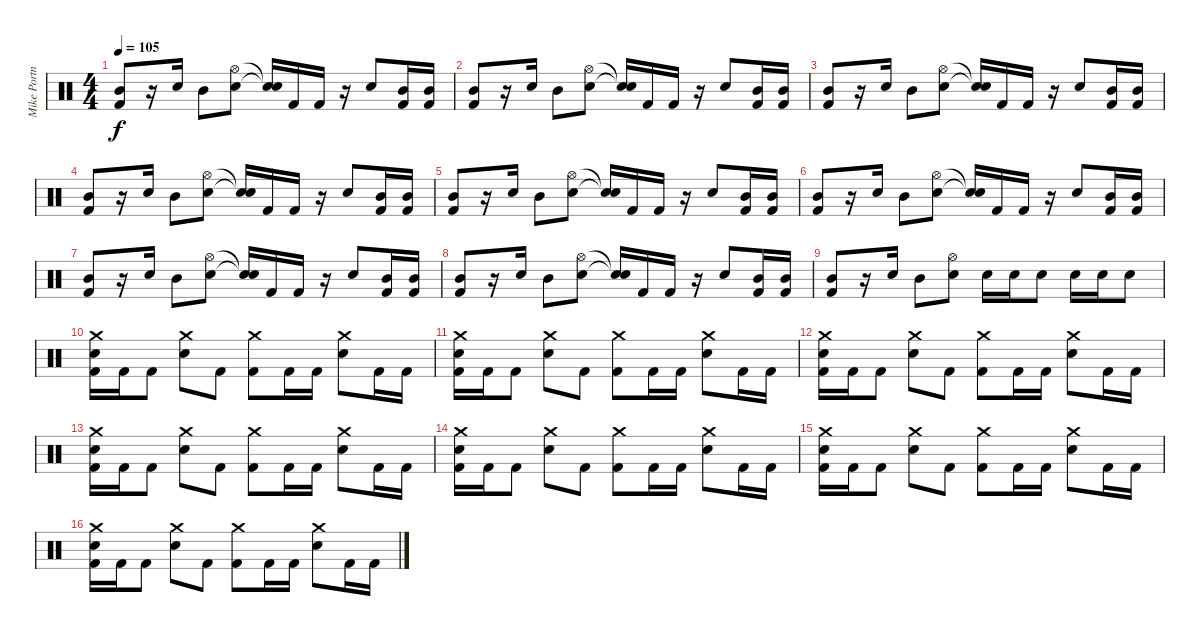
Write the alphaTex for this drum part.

\track ("Mike Portnoy" "Mike Portn") {instrument percussion}
\staff {score}
\articulation defaults
\ts (4 4)
\tempo 105
\clef neutral
\ks c
("Mid Tom (hit)" "Kick (hit) 2").8{dy f} r.16 "Snare (hit) 2".16 "Mid Tom (hit)".8 ("Hi-Hat (open)" "Electric Snare (hit)").8 ("Snare (hit)"{t} "Snare (hit)"{t}).16 "Kick (hit) 2".16 "Kick (hit) 2".16 r.16 "Snare (hit) 2".8 ("Mid Tom (hit)" "Kick (hit) 2").16 ("Mid Tom (hit)" "Kick (hit) 2").16 |
("Mid Tom (hit)" "Kick (hit) 2").8 r.16 "Snare (hit) 2".16 "Mid Tom (hit)".8 ("Hi-Hat (open)" "Electric Snare (hit)").8 ("Snare (hit)"{t} "Snare (hit)"{t}).16 "Kick (hit) 2".16 "Kick (hit) 2".16 r.16 "Snare (hit) 2".8 ("Mid Tom (hit)" "Kick (hit) 2").16 ("Mid Tom (hit)" "Kick (hit) 2").16 |
("Mid Tom (hit)" "Kick (hit) 2").8 r.16 "Snare (hit) 2".16 "Mid Tom (hit)".8 ("Hi-Hat (open)" "Electric Snare (hit)").8 ("Snare (hit)"{t} "Snare (hit)"{t}).16 "Kick (hit) 2".16 "Kick (hit) 2".16 r.16 "Snare (hit) 2".8 ("Mid Tom (hit)" "Kick (hit) 2").16 ("Mid Tom (hit)" "Kick (hit) 2").16 |
("Mid Tom (hit)" "Kick (hit) 2").8 r.16 "Snare (hit) 2".16 "Mid Tom (hit)".8 ("Hi-Hat (open)" "Electric Snare (hit)").8 ("Snare (hit)"{t} "Snare (hit)"{t}).16 "Kick (hit) 2".16 "Kick (hit) 2".16 r.16 "Snare (hit) 2".8 ("Mid Tom (hit)" "Kick (hit) 2").16 ("Mid Tom (hit)" "Kick (hit) 2").16 |
("Mid Tom (hit)" "Kick (hit) 2").8 r.16 "Snare (hit) 2".16 "Mid Tom (hit)".8 ("Hi-Hat (open)" "Electric Snare (hit)").8 ("Snare (hit)"{t} "Snare (hit)"{t}).16 "Kick (hit) 2".16 "Kick (hit) 2".16 r.16 "Snare (hit) 2".8 ("Mid Tom (hit)" "Kick (hit) 2").16 ("Mid Tom (hit)" "Kick (hit) 2").16 |
("Mid Tom (hit)" "Kick (hit) 2").8 r.16 "Snare (hit) 2".16 "Mid Tom (hit)".8 ("Hi-Hat (open)" "Electric Snare (hit)").8 ("Snare (hit)"{t} "Snare (hit)"{t}).16 "Kick (hit) 2".16 "Kick (hit) 2".16 r.16 "Snare (hit) 2".8 ("Mid Tom (hit)" "Kick (hit) 2").16 ("Mid Tom (hit)" "Kick (hit) 2").16 |
("Mid Tom (hit)" "Kick (hit) 2").8 r.16 "Snare (hit) 2".16 "Mid Tom (hit)".8 ("Hi-Hat (open)" "Electric Snare (hit)").8 ("Snare (hit)"{t} "Snare (hit)"{t}).16 "Kick (hit) 2".16 "Kick (hit) 2".16 r.16 "Snare (hit) 2".8 ("Mid Tom (hit)" "Kick (hit) 2").16 ("Mid Tom (hit)" "Kick (hit) 2").16 |
("Mid Tom (hit)" "Kick (hit) 2").8 r.16 "Snare (hit) 2".16 "Mid Tom (hit)".8 ("Hi-Hat (open)" "Electric Snare (hit)").8 ("Snare (hit)"{t} "Snare (hit)"{t}).16 "Kick (hit) 2".16 "Kick (hit) 2".16 r.16 "Snare (hit) 2".8 ("Mid Tom (hit)" "Kick (hit) 2").16 ("Mid Tom (hit)" "Kick (hit) 2").16 |
("Mid Tom (hit)" "Kick (hit) 2").8 r.16 "Snare (hit) 2".16 "Mid Tom (hit)".8 ("Hi-Hat (open)" "Electric Snare (hit)").8 "Electric Snare (hit)".16 "Electric Snare (hit)".16 "Electric Snare (hit)".8 "Electric Snare (hit)".16 "Electric Snare (hit)".16 "Electric Snare (hit)".8 |
("Crash medium (hit)" "Electric Snare (hit)" "Kick (hit) 2").16 "Kick (hit) 2".16 "Kick (hit) 2".8 ("Crash medium (hit)" "Electric Snare (hit)").8 "Kick (hit) 2".8 ("Crash medium (hit)" "Kick (hit) 2").8 "Kick (hit) 2".16 "Kick (hit) 2".16 ("Crash medium (hit)" "Electric Snare (hit)").8 "Kick (hit) 2".16 "Kick (hit) 2".16 |
("Crash medium (hit)" "Electric Snare (hit)" "Kick (hit) 2").16 "Kick (hit) 2".16 "Kick (hit) 2".8 ("Crash medium (hit)" "Electric Snare (hit)").8 "Kick (hit) 2".8 ("Crash medium (hit)" "Kick (hit) 2").8 "Kick (hit) 2".16 "Kick (hit) 2".16 ("Crash medium (hit)" "Electric Snare (hit)").8 "Kick (hit) 2".16 "Kick (hit) 2".16 |
("Crash medium (hit)" "Electric Snare (hit)" "Kick (hit) 2").16 "Kick (hit) 2".16 "Kick (hit) 2".8 ("Crash medium (hit)" "Electric Snare (hit)").8 "Kick (hit) 2".8 ("Crash medium (hit)" "Kick (hit) 2").8 "Kick (hit) 2".16 "Kick (hit) 2".16 ("Crash medium (hit)" "Electric Snare (hit)").8 "Kick (hit) 2".16 "Kick (hit) 2".16 |
("Crash medium (hit)" "Electric Snare (hit)" "Kick (hit) 2").16 "Kick (hit) 2".16 "Kick (hit) 2".8 ("Crash medium (hit)" "Electric Snare (hit)").8 "Kick (hit) 2".8 ("Crash medium (hit)" "Kick (hit) 2").8 "Kick (hit) 2".16 "Kick (hit) 2".16 ("Crash medium (hit)" "Electric Snare (hit)").8 "Kick (hit) 2".16 "Kick (hit) 2".16 |
("Crash medium (hit)" "Electric Snare (hit)" "Kick (hit) 2").16 "Kick (hit) 2".16 "Kick (hit) 2".8 ("Crash medium (hit)" "Electric Snare (hit)").8 "Kick (hit) 2".8 ("Crash medium (hit)" "Kick (hit) 2").8 "Kick (hit) 2".16 "Kick (hit) 2".16 ("Crash medium (hit)" "Electric Snare (hit)").8 "Kick (hit) 2".16 "Kick (hit) 2".16 |
("Crash medium (hit)" "Electric Snare (hit)" "Kick (hit) 2").16 "Kick (hit) 2".16 "Kick (hit) 2".8 ("Crash medium (hit)" "Electric Snare (hit)").8 "Kick (hit) 2".8 ("Crash medium (hit)" "Kick (hit) 2").8 "Kick (hit) 2".16 "Kick (hit) 2".16 ("Crash medium (hit)" "Electric Snare (hit)").8 "Kick (hit) 2".16 "Kick (hit) 2".16 |
("Crash medium (hit)" "Electric Snare (hit)" "Kick (hit) 2").16 "Kick (hit) 2".16 "Kick (hit) 2".8 ("Crash medium (hit)" "Electric Snare (hit)").8 "Kick (hit) 2".8 ("Crash medium (hit)" "Kick (hit) 2").8 "Kick (hit) 2".16 "Kick (hit) 2".16 ("Crash medium (hit)" "Electric Snare (hit)").8 "Kick (hit) 2".16 "Kick (hit) 2".16
